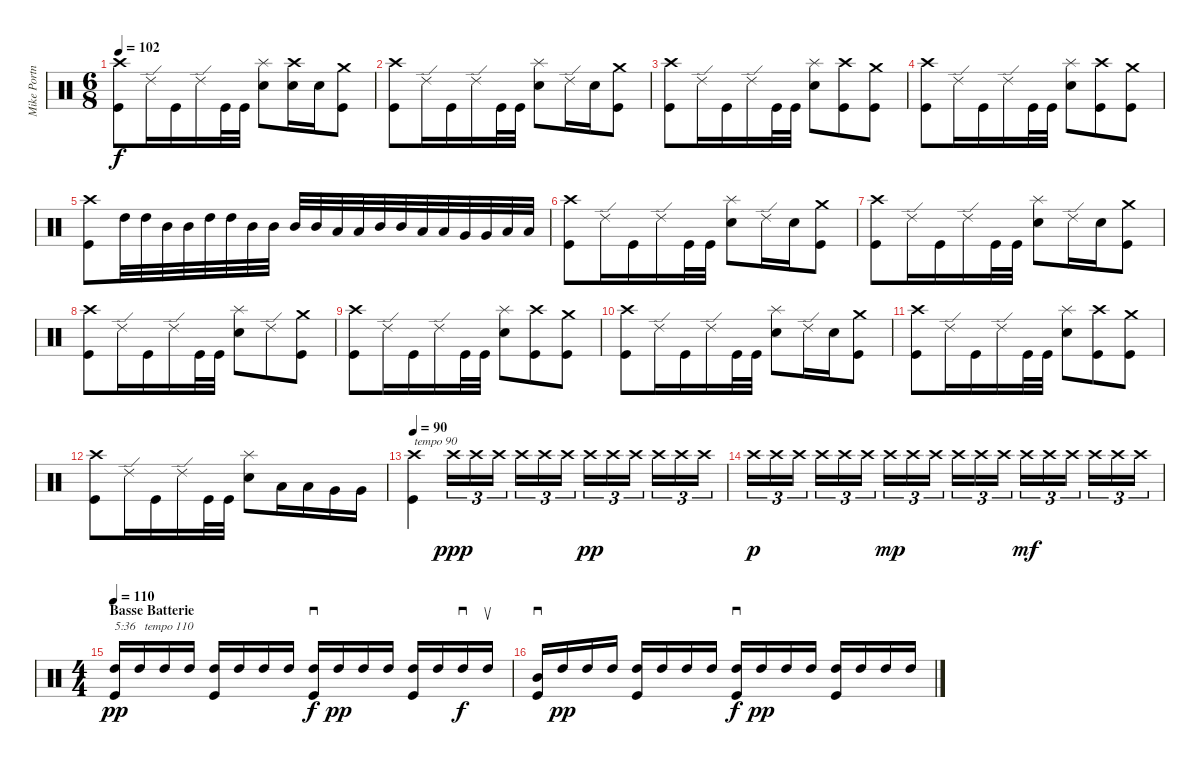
\track ("Mike Portnoy" "Mike Portn") {instrument percussion}
\staff {score}
\articulation defaults
\ts (6 8)
\tempo 102
\clef neutral
\ks c
("Crash high (hit)" "Kick (hit)").8{dy f} "Ride (edge) 2".16 "Kick (hit)".16 "Ride (edge) 2".16 "Kick (hit)".32 "Kick (hit)".32 ("Splash (hit)" "Snare (hit) 2").8 ("Crash high (hit)" "Snare (hit) 2").16 "Snare (hit) 2".16 ("Crash medium (hit)" "Kick (hit)").8 |
("Crash high (hit)" "Kick (hit)").8 "Ride (edge) 2".16 "Kick (hit)".16 "Ride (edge) 2".16 "Kick (hit)".32 "Kick (hit)".32 ("Splash (hit)" "Snare (hit) 2").8 "Ride (edge) 2".16 "Snare (hit) 2".16 ("Crash medium (hit)" "Kick (hit)").8 |
("Crash high (hit)" "Kick (hit)").8 "Ride (edge) 2".16 "Kick (hit)".16 "Ride (edge) 2".16 "Kick (hit)".32 "Kick (hit)".32 ("Splash (hit)" "Snare (hit) 2").8 ("Crash high (hit)" "Kick (hit)").8 ("Crash medium (hit)" "Kick (hit)").8 |
("Crash high (hit)" "Kick (hit)").8 "Ride (edge) 2".16 "Kick (hit)".16 "Ride (edge) 2".16 "Kick (hit)".32 "Kick (hit)".32 ("Splash (hit)" "Snare (hit) 2").8 ("Crash high (hit)" "Kick (hit)").8 ("Crash medium (hit)" "Kick (hit)").8 |
("Crash high (hit)" "Kick (hit)").8 "High Tom (hit)".32 "High Tom (hit)".32 "Mid Tom (hit)".32 "Mid Tom (hit)".32 "High Tom (hit)".32 "High Tom (hit)".32 "Mid Tom (hit)".32 "Mid Tom (hit)".32 "Mid Tom (hit)".32 "Mid Tom (hit)".32 "Low Tom (hit)".32 "Low Tom (hit)".32 "Mid Tom (hit)".32 "Mid Tom (hit)".32 "Low Tom (hit)".32 "Low Tom (hit)".32 "Very Low Tom (hit)".32 "Very Low Tom (hit)".32 "Low Floor Tom (hit)".32 "Low Floor Tom (hit)".32 |
("Crash high (hit)" "Kick (hit)").8 "Ride (edge) 2".16 "Kick (hit)".16 "Ride (edge) 2".16 "Kick (hit)".32 "Kick (hit)".32 ("Splash (hit)" "Snare (hit) 2").8 "Ride (edge) 2".16 "Snare (hit) 2".16 ("Crash medium (hit)" "Kick (hit)").8 |
("Crash high (hit)" "Kick (hit)").8 "Ride (edge) 2".16 "Kick (hit)".16 "Ride (edge) 2".16 "Kick (hit)".32 "Kick (hit)".32 ("Splash (hit)" "Snare (hit) 2").8 "Ride (edge) 2".16 "Snare (hit) 2".16 ("Crash medium (hit)" "Kick (hit)").8 |
("Crash high (hit)" "Kick (hit)").8 "Ride (edge) 2".16 "Kick (hit)".16 "Ride (edge) 2".16 "Kick (hit)".32 "Kick (hit)".32 ("Splash (hit)" "Snare (hit) 2").8 "Ride (edge) 2".8 ("Crash medium (hit)" "Kick (hit)").8 |
("Crash high (hit)" "Kick (hit)").8 "Ride (edge) 2".16 "Kick (hit)".16 "Ride (edge) 2".16 "Kick (hit)".32 "Kick (hit)".32 ("Splash (hit)" "Snare (hit) 2").8 ("Crash high (hit)" "Kick (hit)").8 ("Crash medium (hit)" "Kick (hit)").8 |
("Crash high (hit)" "Kick (hit)").8 "Ride (edge) 2".16 "Kick (hit)".16 "Ride (edge) 2".16 "Kick (hit)".32 "Kick (hit)".32 ("Splash (hit)" "Snare (hit) 2").8 "Ride (edge) 2".16 "Snare (hit) 2".16 ("Crash medium (hit)" "Kick (hit)").8 |
("Crash high (hit)" "Kick (hit)").8 "Ride (edge) 2".16 "Kick (hit)".16 "Ride (edge) 2".16 "Kick (hit)".32 "Kick (hit)".32 ("Splash (hit)" "Snare (hit) 2").8 ("Crash high (hit)" "Kick (hit)").8 ("Crash medium (hit)" "Kick (hit)").8 |
("Crash high (hit)" "Kick (hit)").8 "Ride (edge) 2".16 "Kick (hit)".16 "Ride (edge) 2".16 "Kick (hit)".32 "Kick (hit)".32 ("Splash (hit)" "Snare (hit) 2").8 "Low Tom (hit)".16 "Low Tom (hit)".16 "Very Low Tom (hit)".16 "Very Low Tom (hit)".16 |
\tempo 90
("Crash high (hit)" "Kick (hit)").4{txt "tempo 90"} "Crash high (hit)".16{tu (3 2) dy ppp} "Crash high (hit)".16{tu (3 2)} "Crash high (hit)".16{tu (3 2)} "Crash high (hit)".16{tu (3 2)} "Crash high (hit)".16{tu (3 2)} "Crash high (hit)".16{tu (3 2)} "Crash high (hit)".16{tu (3 2) dy pp} "Crash high (hit)".16{tu (3 2)} "Crash high (hit)".16{tu (3 2)} "Crash high (hit)".16{tu (3 2)} "Crash high (hit)".16{tu (3 2)} "Crash high (hit)".16{tu (3 2)} |
"Crash high (hit)".16{tu (3 2) dy p} "Crash high (hit)".16{tu (3 2)} "Crash high (hit)".16{tu (3 2)} "Crash high (hit)".16{tu (3 2)} "Crash high (hit)".16{tu (3 2)} "Crash high (hit)".16{tu (3 2)} "Crash high (hit)".16{tu (3 2) dy mp} "Crash high (hit)".16{tu (3 2)} "Crash high (hit)".16{tu (3 2)} "Crash high (hit)".16{tu (3 2)} "Crash high (hit)".16{tu (3 2)} "Crash high (hit)".16{tu (3 2)} "Crash high (hit)".16{tu (3 2) dy mf} "Crash high (hit)".16{tu (3 2)} "Crash high (hit)".16{tu (3 2)} "Crash high (hit)".16{tu (3 2)} "Crash high (hit)".16{tu (3 2)} "Crash high (hit)".16{tu (3 2)} |
\ts (4 4)
\section ("" "Basse Batterie")
\tempo 110
("High Tom (hit)" "Kick (hit)").16{txt "5:36   tempo 110" dy pp} "High Tom (hit)".16 "High Tom (hit)".16 "High Tom (hit)".16 ("High Tom (hit)" "Kick (hit)").16 "High Tom (hit)".16 "High Tom (hit)".16 "High Tom (hit)".16 ("High Tom (hit)" "Kick (hit)").16{sd dy f} "High Tom (hit)".16{dy pp} "High Tom (hit)".16 "High Tom (hit)".16 ("High Tom (hit)" "Kick (hit)").16 "High Tom (hit)".16 "High Tom (hit)".16{sd dy f} "High Tom (hit)".16{su} |
("Mid Tom (hit)" "Kick (hit)").16{sd} "High Tom (hit)".16{dy pp} "High Tom (hit)".16 "High Tom (hit)".16 ("High Tom (hit)" "Kick (hit)").16 "High Tom (hit)".16 "High Tom (hit)".16 "High Tom (hit)".16 ("High Tom (hit)" "Kick (hit)").16{sd dy f} "High Tom (hit)".16{dy pp} "High Tom (hit)".16 "High Tom (hit)".16 ("High Tom (hit)" "Kick (hit)").16 "High Tom (hit)".16 "High Tom (hit)".16 "High Tom (hit)".16
